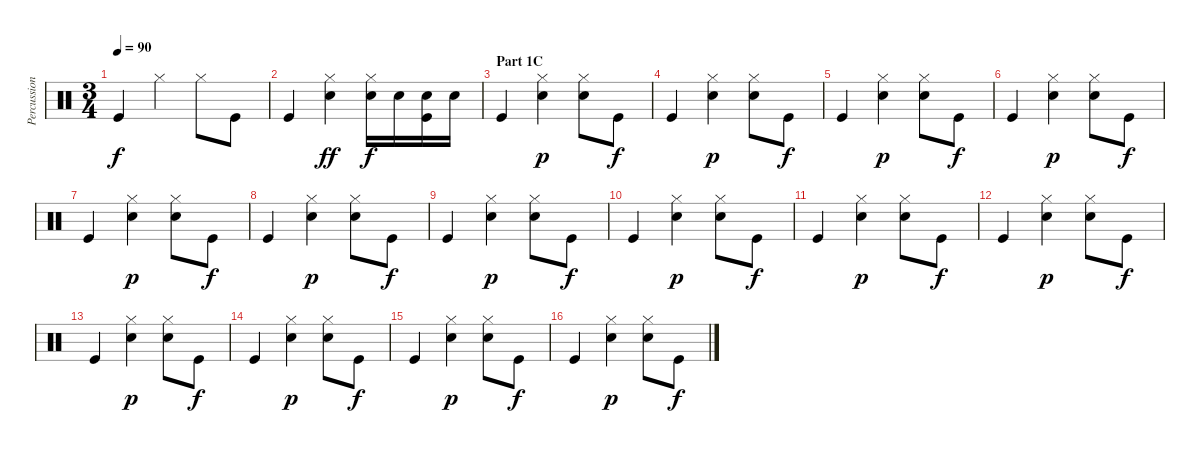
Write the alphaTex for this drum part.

\track ("Percussion" "Percussion") {instrument percussion}
\staff {score}
\articulation defaults
\ts (3 4)
\tempo 90
\clef neutral
\ks c "Kick (hit)".4{dy f} "Hi-Hat (closed)".4 "Hi-Hat (closed)".8 "Kick (hit)".8
|
"Kick (hit)".4 ("Hi-Hat (closed)" "Electric Snare (hit)").4{dy ff} ("Hi-Hat (closed)" "Electric Snare (hit)").16{dy f} "Electric Snare (hit)".16 ("Electric Snare (hit)" "Kick (hit)").16 "Electric Snare (hit)".16 |
\section ("" "Part 1C")
"Kick (hit)".4 ("Hi-Hat (closed)" "Electric Snare (hit)").4{dy p} ("Hi-Hat (closed)" "Electric Snare (hit)").8 "Kick (hit)".8{dy f} |
"Kick (hit)".4 ("Hi-Hat (closed)" "Electric Snare (hit)").4{dy p} ("Hi-Hat (closed)" "Electric Snare (hit)").8 "Kick (hit)".8{dy f} |
"Kick (hit)".4 ("Hi-Hat (closed)" "Electric Snare (hit)").4{dy p} ("Hi-Hat (closed)" "Electric Snare (hit)").8 "Kick (hit)".8{dy f} |
"Kick (hit)".4 ("Hi-Hat (closed)" "Electric Snare (hit)").4{dy p} ("Hi-Hat (closed)" "Electric Snare (hit)").8 "Kick (hit)".8{dy f} |
"Kick (hit)".4 ("Hi-Hat (closed)" "Electric Snare (hit)").4{dy p} ("Hi-Hat (closed)" "Electric Snare (hit)").8 "Kick (hit)".8{dy f} |
"Kick (hit)".4 ("Hi-Hat (closed)" "Electric Snare (hit)").4{dy p} ("Hi-Hat (closed)" "Electric Snare (hit)").8 "Kick (hit)".8{dy f} |
"Kick (hit)".4 ("Hi-Hat (closed)" "Electric Snare (hit)").4{dy p} ("Hi-Hat (closed)" "Electric Snare (hit)").8 "Kick (hit)".8{dy f} |
"Kick (hit)".4 ("Hi-Hat (closed)" "Electric Snare (hit)").4{dy p} ("Hi-Hat (closed)" "Electric Snare (hit)").8 "Kick (hit)".8{dy f} |
"Kick (hit)".4 ("Hi-Hat (closed)" "Electric Snare (hit)").4{dy p} ("Hi-Hat (closed)" "Electric Snare (hit)").8 "Kick (hit)".8{dy f} |
"Kick (hit)".4 ("Hi-Hat (closed)" "Electric Snare (hit)").4{dy p} ("Hi-Hat (closed)" "Electric Snare (hit)").8 "Kick (hit)".8{dy f} |
"Kick (hit)".4 ("Hi-Hat (closed)" "Electric Snare (hit)").4{dy p} ("Hi-Hat (closed)" "Electric Snare (hit)").8 "Kick (hit)".8{dy f} |
"Kick (hit)".4 ("Hi-Hat (closed)" "Electric Snare (hit)").4{dy p} ("Hi-Hat (closed)" "Electric Snare (hit)").8 "Kick (hit)".8{dy f} |
"Kick (hit)".4 ("Hi-Hat (closed)" "Electric Snare (hit)").4{dy p} ("Hi-Hat (closed)" "Electric Snare (hit)").8 "Kick (hit)".8{dy f} |
"Kick (hit)".4 ("Hi-Hat (closed)" "Electric Snare (hit)").4{dy p} ("Hi-Hat (closed)" "Electric Snare (hit)").8 "Kick (hit)".8{dy f}
